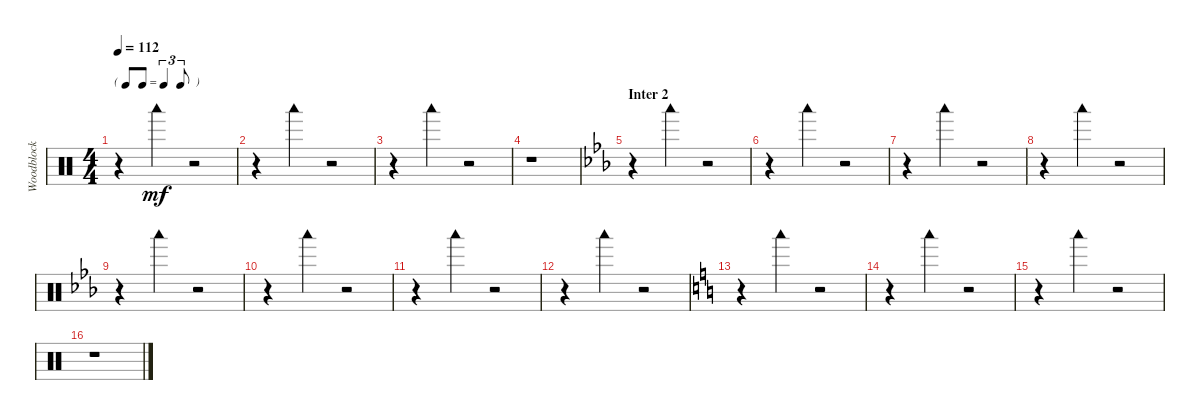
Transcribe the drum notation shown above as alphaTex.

\track ("Woodblock" "Woodblock") {instrument percussion}
\staff {score}
\articulation defaults
\ts (4 4)
\tf triplet8th
\tempo 112
\clef neutral
\ks c
r.4{dy mf} "Woodblock low (hit)".4 r.2 |
r.4 "Woodblock low (hit)".4 r.2 |
r.4 "Woodblock low (hit)".4 r.2 |
r.1 |
\section ("" "Inter 2")
\ks eb
r.4 "Woodblock low (hit)".4 r.2 |
r.4 "Woodblock low (hit)".4 r.2 |
r.4 "Woodblock low (hit)".4 r.2 |
r.4 "Woodblock low (hit)".4 r.2 |
r.4 "Woodblock low (hit)".4 r.2 |
r.4 "Woodblock low (hit)".4 r.2 |
r.4 "Woodblock low (hit)".4 r.2 |
r.4 "Woodblock low (hit)".4 r.2 |
\ks c
r.4 "Woodblock low (hit)".4 r.2 |
r.4 "Woodblock low (hit)".4 r.2 |
r.4 "Woodblock low (hit)".4 r.2 |
r.1
